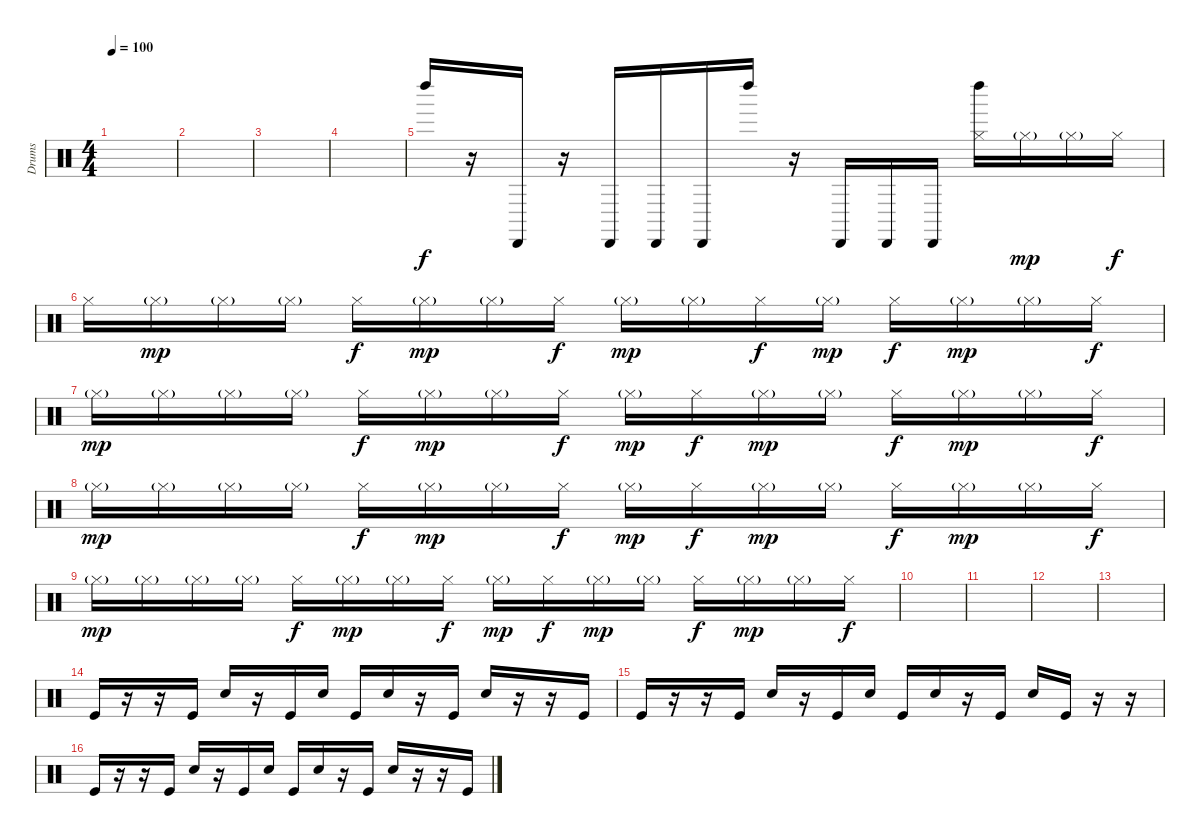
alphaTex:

\track ("Drums" "Drums") {instrument percussion}
\staff {score}
\articulation defaults
\ts (4 4)
\tempo 100
\clef neutral
\ks c
|
|
|
|
"Left Maraca (hit)".16 r.16 "Cabasa (hit)".16 r.16 "Cabasa (hit)".16 "Cabasa (hit)".16 "Cabasa (hit)".16 "Left Maraca (hit)".16 r.16 "Cabasa (hit)".16 "Cabasa (hit)".16 "Cabasa (hit)".16 ("Left Maraca (hit)" "Hi-Hat (closed)").16 "Hi-Hat (closed)"{g}.16{dy mp} "Hi-Hat (closed)"{g}.16 "Hi-Hat (closed)".16{dy f} |
"Hi-Hat (closed)".16 "Hi-Hat (closed)"{g}.16{dy mp} "Hi-Hat (closed)"{g}.16 "Hi-Hat (closed)"{g}.16 "Hi-Hat (closed)".16{dy f} "Hi-Hat (closed)"{g}.16{dy mp} "Hi-Hat (closed)"{g}.16 "Hi-Hat (closed)".16{dy f} "Hi-Hat (closed)"{g}.16{dy mp} "Hi-Hat (closed)"{g}.16 "Hi-Hat (closed)".16{dy f} "Hi-Hat (closed)"{g}.16{dy mp} "Hi-Hat (closed)".16{dy f} "Hi-Hat (closed)"{g}.16{dy mp} "Hi-Hat (closed)"{g}.16 "Hi-Hat (closed)".16{dy f} |
"Hi-Hat (closed)"{g}.16{dy mp} "Hi-Hat (closed)"{g}.16 "Hi-Hat (closed)"{g}.16 "Hi-Hat (closed)"{g}.16 "Hi-Hat (closed)".16{dy f} "Hi-Hat (closed)"{g}.16{dy mp} "Hi-Hat (closed)"{g}.16 "Hi-Hat (closed)".16{dy f} "Hi-Hat (closed)"{g}.16{dy mp} "Hi-Hat (closed)".16{dy f} "Hi-Hat (closed)"{g}.16{dy mp} "Hi-Hat (closed)"{g}.16 "Hi-Hat (closed)".16{dy f} "Hi-Hat (closed)"{g}.16{dy mp} "Hi-Hat (closed)"{g}.16 "Hi-Hat (closed)".16{dy f} |
"Hi-Hat (closed)"{g}.16{dy mp volume 0} "Hi-Hat (closed)"{g}.16 "Hi-Hat (closed)"{g}.16 "Hi-Hat (closed)"{g}.16 "Hi-Hat (closed)".16{dy f} "Hi-Hat (closed)"{g}.16{dy mp} "Hi-Hat (closed)"{g}.16 "Hi-Hat (closed)".16{dy f} "Hi-Hat (closed)"{g}.16{dy mp} "Hi-Hat (closed)".16{dy f} "Hi-Hat (closed)"{g}.16{dy mp} "Hi-Hat (closed)"{g}.16 "Hi-Hat (closed)".16{dy f} "Hi-Hat (closed)"{g}.16{dy mp} "Hi-Hat (closed)"{g}.16 "Hi-Hat (closed)".16{dy f} |
"Hi-Hat (closed)"{g}.16{dy mp} "Hi-Hat (closed)"{g}.16 "Hi-Hat (closed)"{g}.16 "Hi-Hat (closed)"{g}.16 "Hi-Hat (closed)".16{dy f} "Hi-Hat (closed)"{g}.16{dy mp} "Hi-Hat (closed)"{g}.16 "Hi-Hat (closed)".16{dy f} "Hi-Hat (closed)"{g}.16{dy mp} "Hi-Hat (closed)".16{dy f} "Hi-Hat (closed)"{g}.16{dy mp} "Hi-Hat (closed)"{g}.16 "Hi-Hat (closed)".16{dy f} "Hi-Hat (closed)"{g}.16{dy mp} "Hi-Hat (closed)"{g}.16 "Hi-Hat (closed)".16{dy f} |
|
|
|
|
"Kick (hit)".16{volume 12} r.16 r.16 "Kick (hit)".16 "Electric Snare (hit)".16 r.16 "Kick (hit)".16 "Electric Snare (hit)".16 "Kick (hit)".16 "Electric Snare (hit)".16 r.16 "Kick (hit)".16 "Electric Snare (hit)".16 r.16 r.16 "Kick (hit)".16 |
"Kick (hit)".16 r.16 r.16 "Kick (hit)".16 "Electric Snare (hit)".16 r.16 "Kick (hit)".16 "Electric Snare (hit)".16 "Kick (hit)".16 "Electric Snare (hit)".16 r.16 "Kick (hit)".16 "Electric Snare (hit)".16 "Kick (hit)".16 r.16 r.16 |
"Kick (hit)".16 r.16 r.16 "Kick (hit)".16 "Electric Snare (hit)".16 r.16 "Kick (hit)".16 "Electric Snare (hit)".16 "Kick (hit)".16 "Electric Snare (hit)".16 r.16 "Kick (hit)".16 "Electric Snare (hit)".16 r.16 r.16 "Kick (hit)".16
